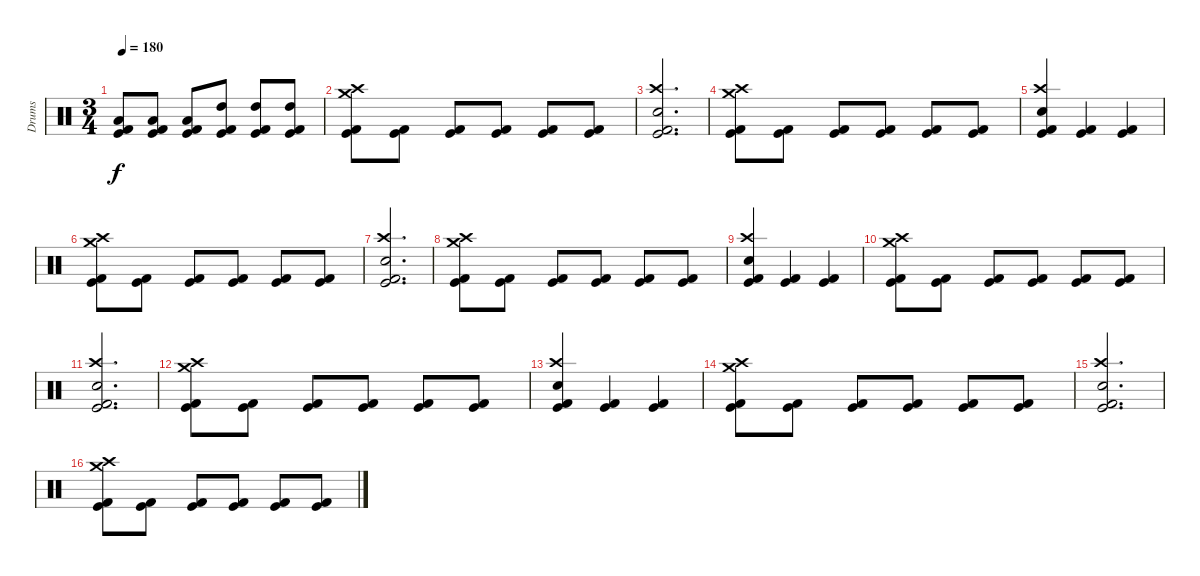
\track ("Drums" "Drums") {instrument percussion}
\staff {score}
\articulation defaults
\ts (3 4)
\tempo 180
\clef neutral
\ks c
("Low Tom (hit)" "Kick (hit)" "Kick (hit) 2").8{dy f} ("Low Tom (hit)" "Kick (hit)" "Kick (hit) 2").8 ("Low Tom (hit)" "Kick (hit)" "Kick (hit) 2").8 ("High Tom (hit)" "Kick (hit)" "Kick (hit) 2").8 ("High Tom (hit)" "Kick (hit)" "Kick (hit) 2").8 ("High Tom (hit)" "Kick (hit)" "Kick (hit) 2").8 |
("Crash medium (hit)" "Crash high (hit)" "Kick (hit)" "Kick (hit) 2").8 ("Kick (hit)" "Kick (hit) 2").8 ("Kick (hit)" "Kick (hit) 2").8 ("Kick (hit)" "Kick (hit) 2").8 ("Kick (hit)" "Kick (hit) 2").8 ("Kick (hit)" "Kick (hit) 2").8 |
("Crash high (hit)" "Snare (hit) 2" "Kick (hit)" "Kick (hit) 2").2{d} |
("Crash medium (hit)" "Crash high (hit)" "Kick (hit)" "Kick (hit) 2").8 ("Kick (hit)" "Kick (hit) 2").8 ("Kick (hit)" "Kick (hit) 2").8 ("Kick (hit)" "Kick (hit) 2").8 ("Kick (hit)" "Kick (hit) 2").8 ("Kick (hit)" "Kick (hit) 2").8 |
("Crash high (hit)" "Snare (hit) 2" "Kick (hit)" "Kick (hit) 2").4 ("Kick (hit)" "Kick (hit) 2").4 ("Kick (hit)" "Kick (hit) 2").4 |
("Crash medium (hit)" "Crash high (hit)" "Kick (hit)" "Kick (hit) 2").8 ("Kick (hit)" "Kick (hit) 2").8 ("Kick (hit)" "Kick (hit) 2").8 ("Kick (hit)" "Kick (hit) 2").8 ("Kick (hit)" "Kick (hit) 2").8 ("Kick (hit)" "Kick (hit) 2").8 |
("Crash high (hit)" "Snare (hit) 2" "Kick (hit)" "Kick (hit) 2").2{d} |
("Crash medium (hit)" "Crash high (hit)" "Kick (hit)" "Kick (hit) 2").8 ("Kick (hit)" "Kick (hit) 2").8 ("Kick (hit)" "Kick (hit) 2").8 ("Kick (hit)" "Kick (hit) 2").8 ("Kick (hit)" "Kick (hit) 2").8 ("Kick (hit)" "Kick (hit) 2").8 |
("Crash high (hit)" "Snare (hit) 2" "Kick (hit)" "Kick (hit) 2").4 ("Kick (hit)" "Kick (hit) 2").4 ("Kick (hit)" "Kick (hit) 2").4 |
("Crash medium (hit)" "Crash high (hit)" "Kick (hit)" "Kick (hit) 2").8 ("Kick (hit)" "Kick (hit) 2").8 ("Kick (hit)" "Kick (hit) 2").8 ("Kick (hit)" "Kick (hit) 2").8 ("Kick (hit)" "Kick (hit) 2").8 ("Kick (hit)" "Kick (hit) 2").8 |
("Crash high (hit)" "Snare (hit) 2" "Kick (hit)" "Kick (hit) 2").2{d} |
("Crash medium (hit)" "Crash high (hit)" "Kick (hit)" "Kick (hit) 2").8 ("Kick (hit)" "Kick (hit) 2").8 ("Kick (hit)" "Kick (hit) 2").8 ("Kick (hit)" "Kick (hit) 2").8 ("Kick (hit)" "Kick (hit) 2").8 ("Kick (hit)" "Kick (hit) 2").8 |
("Crash high (hit)" "Snare (hit) 2" "Kick (hit)" "Kick (hit) 2").4 ("Kick (hit)" "Kick (hit) 2").4 ("Kick (hit)" "Kick (hit) 2").4 |
("Crash medium (hit)" "Crash high (hit)" "Kick (hit)" "Kick (hit) 2").8 ("Kick (hit)" "Kick (hit) 2").8 ("Kick (hit)" "Kick (hit) 2").8 ("Kick (hit)" "Kick (hit) 2").8 ("Kick (hit)" "Kick (hit) 2").8 ("Kick (hit)" "Kick (hit) 2").8 |
("Crash high (hit)" "Snare (hit) 2" "Kick (hit)" "Kick (hit) 2").2{d} |
("Crash medium (hit)" "Crash high (hit)" "Kick (hit)" "Kick (hit) 2").8 ("Kick (hit)" "Kick (hit) 2").8 ("Kick (hit)" "Kick (hit) 2").8 ("Kick (hit)" "Kick (hit) 2").8 ("Kick (hit)" "Kick (hit) 2").8 ("Kick (hit)" "Kick (hit) 2").8
